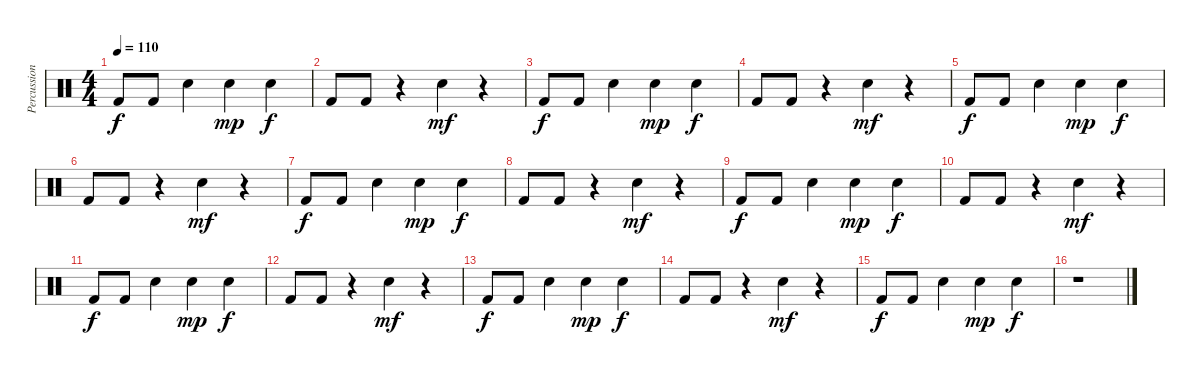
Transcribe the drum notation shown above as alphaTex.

\track ("Percussions" "Percussion") {instrument percussion}
\staff {score}
\articulation defaults
\ts (4 4)
\tempo 110
\clef neutral
\ks c "Kick (hit) 2".8{dy f} "Kick (hit) 2".8 "Snare (hit) 2".4 "Snare (hit) 2".4{dy mp} "Snare (hit) 2".4{dy f}
|
"Kick (hit) 2".8 "Kick (hit) 2".8 r.4 "Snare (hit) 2".4{dy mf} r.4 |
"Kick (hit) 2".8{dy f} "Kick (hit) 2".8 "Snare (hit) 2".4 "Snare (hit) 2".4{dy mp} "Snare (hit) 2".4{dy f} |
"Kick (hit) 2".8 "Kick (hit) 2".8 r.4 "Snare (hit) 2".4{dy mf} r.4 |
"Kick (hit) 2".8{dy f} "Kick (hit) 2".8 "Snare (hit) 2".4 "Snare (hit) 2".4{dy mp} "Snare (hit) 2".4{dy f} |
"Kick (hit) 2".8 "Kick (hit) 2".8 r.4 "Snare (hit) 2".4{dy mf} r.4 |
"Kick (hit) 2".8{dy f} "Kick (hit) 2".8 "Snare (hit) 2".4 "Snare (hit) 2".4{dy mp} "Snare (hit) 2".4{dy f} |
"Kick (hit) 2".8 "Kick (hit) 2".8 r.4 "Snare (hit) 2".4{dy mf} r.4 |
"Kick (hit) 2".8{dy f} "Kick (hit) 2".8 "Snare (hit) 2".4 "Snare (hit) 2".4{dy mp} "Snare (hit) 2".4{dy f} |
"Kick (hit) 2".8 "Kick (hit) 2".8 r.4 "Snare (hit) 2".4{dy mf} r.4 |
"Kick (hit) 2".8{dy f} "Kick (hit) 2".8 "Snare (hit) 2".4 "Snare (hit) 2".4{dy mp} "Snare (hit) 2".4{dy f} |
"Kick (hit) 2".8 "Kick (hit) 2".8 r.4 "Snare (hit) 2".4{dy mf} r.4 |
"Kick (hit) 2".8{dy f} "Kick (hit) 2".8 "Snare (hit) 2".4 "Snare (hit) 2".4{dy mp} "Snare (hit) 2".4{dy f} |
"Kick (hit) 2".8 "Kick (hit) 2".8 r.4 "Snare (hit) 2".4{dy mf} r.4 |
"Kick (hit) 2".8{dy f} "Kick (hit) 2".8 "Snare (hit) 2".4 "Snare (hit) 2".4{dy mp} "Snare (hit) 2".4{dy f} |
r.1
